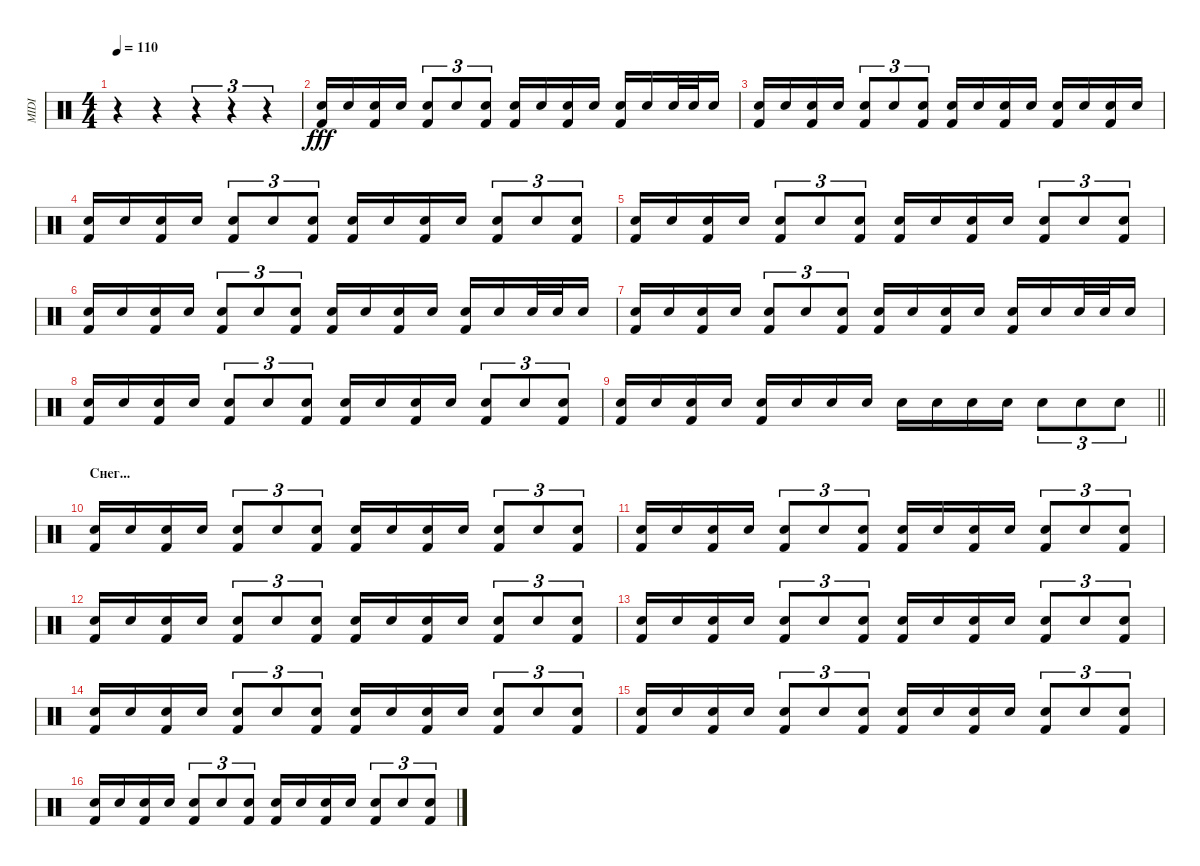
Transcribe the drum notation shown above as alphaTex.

\track ("MIDI" "MIDI") {instrument percussion}
\staff
\articulation defaults
\ts (4 4)
\tempo 110
\clef neutral
\ks c
r.4{dy fff} r.4 r.4{tu (3 2)} r.4{tu (3 2)} r.4{tu (3 2)} |
("Kick (hit) 2" "Snare (hit)").16 "Snare (hit)".16 ("Kick (hit) 2" "Snare (hit)").16 "Snare (hit)".16 ("Kick (hit) 2" "Snare (hit)").8{tu (3 2)} "Snare (hit)".8{tu (3 2)} ("Kick (hit) 2" "Snare (hit)").8{tu (3 2)} ("Kick (hit) 2" "Snare (hit)").16 "Snare (hit)".16 ("Kick (hit) 2" "Snare (hit)").16 "Snare (hit)".16 ("Kick (hit) 2" "Snare (hit)").16 "Snare (hit)".16 "Snare (hit)".32 "Snare (hit)".32 "Snare (hit)".16 |
("Kick (hit) 2" "Snare (hit)").16 "Snare (hit)".16 ("Kick (hit) 2" "Snare (hit)").16 "Snare (hit)".16 ("Kick (hit) 2" "Snare (hit)").8{tu (3 2)} "Snare (hit)".8{tu (3 2)} ("Kick (hit) 2" "Snare (hit)").8{tu (3 2)} ("Kick (hit) 2" "Snare (hit)").16 "Snare (hit)".16 ("Kick (hit) 2" "Snare (hit)").16 "Snare (hit)".16 ("Kick (hit) 2" "Snare (hit)").16 "Snare (hit)".16 ("Kick (hit) 2" "Snare (hit)").16 "Snare (hit)".16 |
("Kick (hit) 2" "Snare (hit)").16 "Snare (hit)".16 ("Kick (hit) 2" "Snare (hit)").16 "Snare (hit)".16 ("Kick (hit) 2" "Snare (hit)").8{tu (3 2)} "Snare (hit)".8{tu (3 2)} ("Kick (hit) 2" "Snare (hit)").8{tu (3 2)} ("Kick (hit) 2" "Snare (hit)").16 "Snare (hit)".16 ("Kick (hit) 2" "Snare (hit)").16 "Snare (hit)".16 ("Kick (hit) 2" "Snare (hit)").8{tu (3 2)} "Snare (hit)".8{tu (3 2)} ("Kick (hit) 2" "Snare (hit)").8{tu (3 2)} |
("Kick (hit) 2" "Snare (hit)").16 "Snare (hit)".16 ("Kick (hit) 2" "Snare (hit)").16 "Snare (hit)".16 ("Kick (hit) 2" "Snare (hit)").8{tu (3 2)} "Snare (hit)".8{tu (3 2)} ("Kick (hit) 2" "Snare (hit)").8{tu (3 2)} ("Kick (hit) 2" "Snare (hit)").16 "Snare (hit)".16 ("Kick (hit) 2" "Snare (hit)").16 "Snare (hit)".16 ("Kick (hit) 2" "Snare (hit)").8{tu (3 2)} "Snare (hit)".8{tu (3 2)} ("Kick (hit) 2" "Snare (hit)").8{tu (3 2)} |
("Kick (hit) 2" "Snare (hit)").16 "Snare (hit)".16 ("Kick (hit) 2" "Snare (hit)").16 "Snare (hit)".16 ("Kick (hit) 2" "Snare (hit)").8{tu (3 2)} "Snare (hit)".8{tu (3 2)} ("Kick (hit) 2" "Snare (hit)").8{tu (3 2)} ("Kick (hit) 2" "Snare (hit)").16 "Snare (hit)".16 ("Kick (hit) 2" "Snare (hit)").16 "Snare (hit)".16 ("Kick (hit) 2" "Snare (hit)").16 "Snare (hit)".16 "Snare (hit)".32 "Snare (hit)".32 "Snare (hit)".16 |
("Kick (hit) 2" "Snare (hit)").16 "Snare (hit)".16 ("Kick (hit) 2" "Snare (hit)").16 "Snare (hit)".16 ("Kick (hit) 2" "Snare (hit)").8{tu (3 2)} "Snare (hit)".8{tu (3 2)} ("Kick (hit) 2" "Snare (hit)").8{tu (3 2)} ("Kick (hit) 2" "Snare (hit)").16 "Snare (hit)".16 ("Kick (hit) 2" "Snare (hit)").16 "Snare (hit)".16 ("Kick (hit) 2" "Snare (hit)").16 "Snare (hit)".16 "Snare (hit)".32 "Snare (hit)".32 "Snare (hit)".16 |
("Kick (hit) 2" "Snare (hit)").16 "Snare (hit)".16 ("Kick (hit) 2" "Snare (hit)").16 "Snare (hit)".16 ("Kick (hit) 2" "Snare (hit)").8{tu (3 2)} "Snare (hit)".8{tu (3 2)} ("Kick (hit) 2" "Snare (hit)").8{tu (3 2)} ("Kick (hit) 2" "Snare (hit)").16 "Snare (hit)".16 ("Kick (hit) 2" "Snare (hit)").16 "Snare (hit)".16 ("Kick (hit) 2" "Snare (hit)").8{tu (3 2)} "Snare (hit)".8{tu (3 2)} ("Kick (hit) 2" "Snare (hit)").8{tu (3 2)} |
\barLineRight lightlight
("Kick (hit) 2" "Snare (hit)").16 "Snare (hit)".16 ("Kick (hit) 2" "Snare (hit)").16 "Snare (hit)".16 ("Kick (hit) 2" "Snare (hit)").16 "Snare (hit)".16 "Snare (hit)".16 "Snare (hit)".16 "Snare (hit)".16 "Snare (hit)".16 "Snare (hit)".16 "Snare (hit)".16 "Snare (hit)".8{tu (3 2)} "Snare (hit)".8{tu (3 2)} "Snare (hit)".8{tu (3 2)} |
\section ("" "Снег...")
("Kick (hit) 2" "Snare (hit)").16 "Snare (hit)".16 ("Kick (hit) 2" "Snare (hit)").16 "Snare (hit)".16 ("Kick (hit) 2" "Snare (hit)").8{tu (3 2)} "Snare (hit)".8{tu (3 2)} ("Kick (hit) 2" "Snare (hit)").8{tu (3 2)} ("Kick (hit) 2" "Snare (hit)").16 "Snare (hit)".16 ("Kick (hit) 2" "Snare (hit)").16 "Snare (hit)".16 ("Kick (hit) 2" "Snare (hit)").8{tu (3 2)} "Snare (hit)".8{tu (3 2)} ("Kick (hit) 2" "Snare (hit)").8{tu (3 2)} |
("Kick (hit) 2" "Snare (hit)").16 "Snare (hit)".16 ("Kick (hit) 2" "Snare (hit)").16 "Snare (hit)".16 ("Kick (hit) 2" "Snare (hit)").8{tu (3 2)} "Snare (hit)".8{tu (3 2)} ("Kick (hit) 2" "Snare (hit)").8{tu (3 2)} ("Kick (hit) 2" "Snare (hit)").16 "Snare (hit)".16 ("Kick (hit) 2" "Snare (hit)").16 "Snare (hit)".16 ("Kick (hit) 2" "Snare (hit)").8{tu (3 2)} "Snare (hit)".8{tu (3 2)} ("Kick (hit) 2" "Snare (hit)").8{tu (3 2)} |
("Kick (hit) 2" "Snare (hit)").16 "Snare (hit)".16 ("Kick (hit) 2" "Snare (hit)").16 "Snare (hit)".16 ("Kick (hit) 2" "Snare (hit)").8{tu (3 2)} "Snare (hit)".8{tu (3 2)} ("Kick (hit) 2" "Snare (hit)").8{tu (3 2)} ("Kick (hit) 2" "Snare (hit)").16 "Snare (hit)".16 ("Kick (hit) 2" "Snare (hit)").16 "Snare (hit)".16 ("Kick (hit) 2" "Snare (hit)").8{tu (3 2)} "Snare (hit)".8{tu (3 2)} ("Kick (hit) 2" "Snare (hit)").8{tu (3 2)} |
("Kick (hit) 2" "Snare (hit)").16 "Snare (hit)".16 ("Kick (hit) 2" "Snare (hit)").16 "Snare (hit)".16 ("Kick (hit) 2" "Snare (hit)").8{tu (3 2)} "Snare (hit)".8{tu (3 2)} ("Kick (hit) 2" "Snare (hit)").8{tu (3 2)} ("Kick (hit) 2" "Snare (hit)").16 "Snare (hit)".16 ("Kick (hit) 2" "Snare (hit)").16 "Snare (hit)".16 ("Kick (hit) 2" "Snare (hit)").8{tu (3 2)} "Snare (hit)".8{tu (3 2)} ("Kick (hit) 2" "Snare (hit)").8{tu (3 2)} |
("Kick (hit) 2" "Snare (hit)").16 "Snare (hit)".16 ("Kick (hit) 2" "Snare (hit)").16 "Snare (hit)".16 ("Kick (hit) 2" "Snare (hit)").8{tu (3 2)} "Snare (hit)".8{tu (3 2)} ("Kick (hit) 2" "Snare (hit)").8{tu (3 2)} ("Kick (hit) 2" "Snare (hit)").16 "Snare (hit)".16 ("Kick (hit) 2" "Snare (hit)").16 "Snare (hit)".16 ("Kick (hit) 2" "Snare (hit)").8{tu (3 2)} "Snare (hit)".8{tu (3 2)} ("Kick (hit) 2" "Snare (hit)").8{tu (3 2)} |
("Kick (hit) 2" "Snare (hit)").16 "Snare (hit)".16 ("Kick (hit) 2" "Snare (hit)").16 "Snare (hit)".16 ("Kick (hit) 2" "Snare (hit)").8{tu (3 2)} "Snare (hit)".8{tu (3 2)} ("Kick (hit) 2" "Snare (hit)").8{tu (3 2)} ("Kick (hit) 2" "Snare (hit)").16 "Snare (hit)".16 ("Kick (hit) 2" "Snare (hit)").16 "Snare (hit)".16 ("Kick (hit) 2" "Snare (hit)").8{tu (3 2)} "Snare (hit)".8{tu (3 2)} ("Kick (hit) 2" "Snare (hit)").8{tu (3 2)} |
("Kick (hit) 2" "Snare (hit)").16 "Snare (hit)".16 ("Kick (hit) 2" "Snare (hit)").16 "Snare (hit)".16 ("Kick (hit) 2" "Snare (hit)").8{tu (3 2)} "Snare (hit)".8{tu (3 2)} ("Kick (hit) 2" "Snare (hit)").8{tu (3 2)} ("Kick (hit) 2" "Snare (hit)").16 "Snare (hit)".16 ("Kick (hit) 2" "Snare (hit)").16 "Snare (hit)".16 ("Kick (hit) 2" "Snare (hit)").8{tu (3 2)} "Snare (hit)".8{tu (3 2)} ("Kick (hit) 2" "Snare (hit)").8{tu (3 2)}
